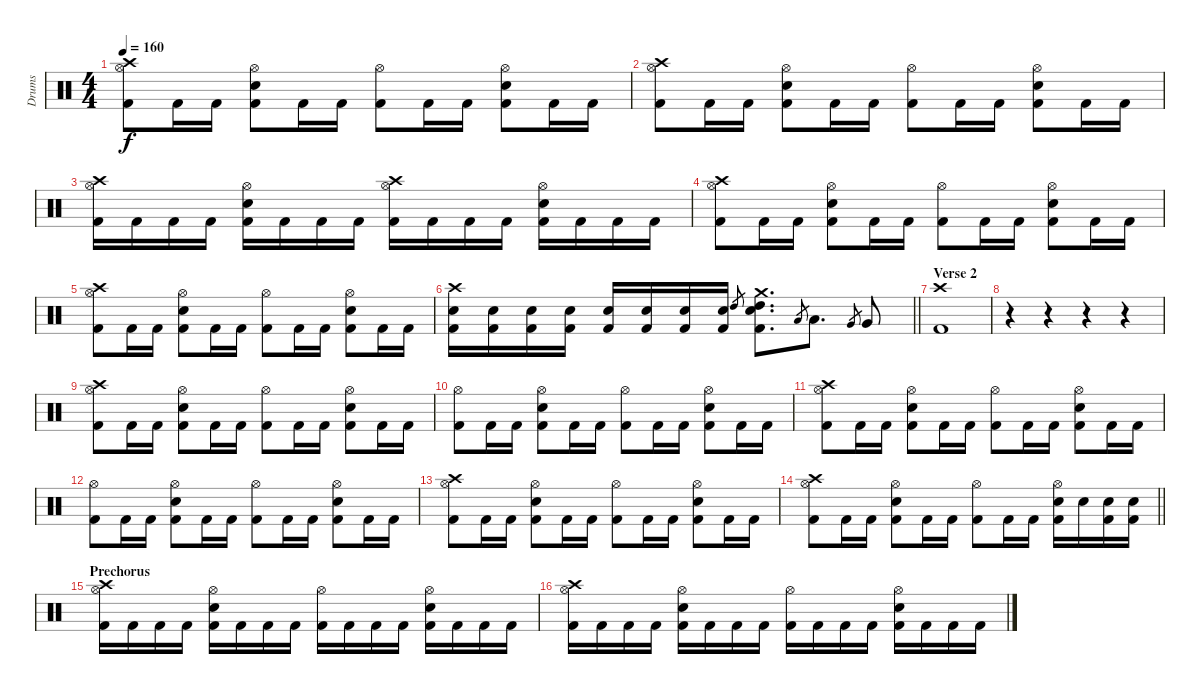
\track ("Drums" "Drums") {instrument percussion}
\staff {score}
\articulation defaults
\ts (4 4)
\tempo 160
\clef neutral
\ks c
("Crash high (hit)" "Hi-Hat (open)" "Kick (hit) 2").8{dy f} "Kick (hit) 2".16 "Kick (hit) 2".16 ("Hi-Hat (open)" "Snare (hit) 2" "Kick (hit) 2").8 "Kick (hit) 2".16 "Kick (hit) 2".16 ("Hi-Hat (open)" "Kick (hit) 2").8 "Kick (hit) 2".16 "Kick (hit) 2".16 ("Hi-Hat (open)" "Snare (hit) 2" "Kick (hit) 2").8 "Kick (hit) 2".16 "Kick (hit) 2".16 |
("Crash high (hit)" "Hi-Hat (open)" "Kick (hit) 2").8 "Kick (hit) 2".16 "Kick (hit) 2".16 ("Hi-Hat (open)" "Snare (hit) 2" "Kick (hit) 2").8 "Kick (hit) 2".16 "Kick (hit) 2".16 ("Hi-Hat (open)" "Kick (hit) 2").8 "Kick (hit) 2".16 "Kick (hit) 2".16 ("Hi-Hat (open)" "Snare (hit) 2" "Kick (hit) 2").8 "Kick (hit) 2".16 "Kick (hit) 2".16 |
("Crash high (hit)" "Hi-Hat (open)" "Kick (hit) 2").16 "Kick (hit) 2".16 "Kick (hit) 2".16 "Kick (hit) 2".16 ("Hi-Hat (open)" "Snare (hit) 2" "Kick (hit) 2").16 "Kick (hit) 2".16 "Kick (hit) 2".16 "Kick (hit) 2".16 ("Crash high (hit)" "Hi-Hat (open)" "Kick (hit) 2").16 "Kick (hit) 2".16 "Kick (hit) 2".16 "Kick (hit) 2".16 ("Hi-Hat (open)" "Snare (hit) 2" "Kick (hit) 2").16 "Kick (hit) 2".16 "Kick (hit) 2".16 "Kick (hit) 2".16 |
("Crash high (hit)" "Hi-Hat (open)" "Kick (hit) 2").8 "Kick (hit) 2".16 "Kick (hit) 2".16 ("Hi-Hat (open)" "Snare (hit) 2" "Kick (hit) 2").8 "Kick (hit) 2".16 "Kick (hit) 2".16 ("Hi-Hat (open)" "Kick (hit) 2").8 "Kick (hit) 2".16 "Kick (hit) 2".16 ("Hi-Hat (open)" "Snare (hit) 2" "Kick (hit) 2").8 "Kick (hit) 2".16 "Kick (hit) 2".16 |
("Crash high (hit)" "Hi-Hat (open)" "Kick (hit) 2").8 "Kick (hit) 2".16 "Kick (hit) 2".16 ("Hi-Hat (open)" "Snare (hit) 2" "Kick (hit) 2").8 "Kick (hit) 2".16 "Kick (hit) 2".16 ("Hi-Hat (open)" "Kick (hit) 2").8 "Kick (hit) 2".16 "Kick (hit) 2".16 ("Hi-Hat (open)" "Snare (hit) 2" "Kick (hit) 2").8 "Kick (hit) 2".16 "Kick (hit) 2".16 |
\barLineRight lightlight
("Crash high (hit)" "Snare (hit) 2" "Kick (hit) 2").16 ("Snare (hit) 2" "Kick (hit) 2").16 ("Snare (hit) 2" "Kick (hit) 2").16 ("Snare (hit) 2" "Kick (hit) 2").16 ("Snare (hit) 2" "Kick (hit) 2").16 ("Snare (hit) 2" "Kick (hit) 2").16 ("Snare (hit) 2" "Kick (hit) 2").16 ("Snare (hit) 2" "Kick (hit) 2").16 "High Tom (hit)".8{gr} ("Crash medium (hit)" "High Tom (hit)" "Snare (hit) 2" "Kick (hit) 2").8{d} "Low Tom (hit)".8{gr} "Low Tom (hit)".8{d} "Very Low Tom (hit)".8{gr} "Very Low Tom (hit)".8 |
\section ("" "Verse 2")
("Crash high (hit)" "Kick (hit) 2").1 |
r.4 r.4 r.4 r.4 |
("Crash high (hit)" "Hi-Hat (open)" "Kick (hit) 2").8 "Kick (hit) 2".16 "Kick (hit) 2".16 ("Hi-Hat (open)" "Snare (hit) 2" "Kick (hit) 2").8 "Kick (hit) 2".16 "Kick (hit) 2".16 ("Hi-Hat (open)" "Kick (hit) 2").8 "Kick (hit) 2".16 "Kick (hit) 2".16 ("Hi-Hat (open)" "Snare (hit) 2" "Kick (hit) 2").8 "Kick (hit) 2".16 "Kick (hit) 2".16 |
("Hi-Hat (open)" "Kick (hit) 2").8 "Kick (hit) 2".16 "Kick (hit) 2".16 ("Hi-Hat (open)" "Snare (hit) 2" "Kick (hit) 2").8 "Kick (hit) 2".16 "Kick (hit) 2".16 ("Hi-Hat (open)" "Kick (hit) 2").8 "Kick (hit) 2".16 "Kick (hit) 2".16 ("Hi-Hat (open)" "Snare (hit) 2" "Kick (hit) 2").8 "Kick (hit) 2".16 "Kick (hit) 2".16 |
("Crash high (hit)" "Hi-Hat (open)" "Kick (hit) 2").8 "Kick (hit) 2".16 "Kick (hit) 2".16 ("Hi-Hat (open)" "Snare (hit) 2" "Kick (hit) 2").8 "Kick (hit) 2".16 "Kick (hit) 2".16 ("Hi-Hat (open)" "Kick (hit) 2").8 "Kick (hit) 2".16 "Kick (hit) 2".16 ("Hi-Hat (open)" "Snare (hit) 2" "Kick (hit) 2").8 "Kick (hit) 2".16 "Kick (hit) 2".16 |
("Hi-Hat (open)" "Kick (hit) 2").8 "Kick (hit) 2".16 "Kick (hit) 2".16 ("Hi-Hat (open)" "Snare (hit) 2" "Kick (hit) 2").8 "Kick (hit) 2".16 "Kick (hit) 2".16 ("Hi-Hat (open)" "Kick (hit) 2").8 "Kick (hit) 2".16 "Kick (hit) 2".16 ("Hi-Hat (open)" "Snare (hit) 2" "Kick (hit) 2").8 "Kick (hit) 2".16 "Kick (hit) 2".16 |
("Crash high (hit)" "Hi-Hat (open)" "Kick (hit) 2").8 "Kick (hit) 2".16 "Kick (hit) 2".16 ("Hi-Hat (open)" "Snare (hit) 2" "Kick (hit) 2").8 "Kick (hit) 2".16 "Kick (hit) 2".16 ("Hi-Hat (open)" "Kick (hit) 2").8 "Kick (hit) 2".16 "Kick (hit) 2".16 ("Hi-Hat (open)" "Snare (hit) 2" "Kick (hit) 2").8 "Kick (hit) 2".16 "Kick (hit) 2".16 |
\barLineRight lightlight
("Crash high (hit)" "Hi-Hat (open)" "Kick (hit) 2").8 "Kick (hit) 2".16 "Kick (hit) 2".16 ("Hi-Hat (open)" "Snare (hit) 2" "Kick (hit) 2").8 "Kick (hit) 2".16 "Kick (hit) 2".16 ("Hi-Hat (open)" "Kick (hit) 2").8 "Kick (hit) 2".16 "Kick (hit) 2".16 ("Hi-Hat (open)" "Snare (hit) 2" "Kick (hit) 2").16 "Snare (hit) 2".16 ("Snare (hit) 2" "Kick (hit) 2").16 ("Snare (hit) 2" "Kick (hit) 2").16 |
\section ("" "Prechorus")
("Crash high (hit)" "Hi-Hat (open)" "Kick (hit) 2").16 "Kick (hit) 2".16 "Kick (hit) 2".16 "Kick (hit) 2".16 ("Hi-Hat (open)" "Snare (hit) 2" "Kick (hit) 2").16 "Kick (hit) 2".16 "Kick (hit) 2".16 "Kick (hit) 2".16 ("Hi-Hat (open)" "Kick (hit) 2").16 "Kick (hit) 2".16 "Kick (hit) 2".16 "Kick (hit) 2".16 ("Hi-Hat (open)" "Snare (hit) 2" "Kick (hit) 2").16 "Kick (hit) 2".16 "Kick (hit) 2".16 "Kick (hit) 2".16 |
("Crash high (hit)" "Hi-Hat (open)" "Kick (hit) 2").16 "Kick (hit) 2".16 "Kick (hit) 2".16 "Kick (hit) 2".16 ("Hi-Hat (open)" "Snare (hit) 2" "Kick (hit) 2").16 "Kick (hit) 2".16 "Kick (hit) 2".16 "Kick (hit) 2".16 ("Hi-Hat (open)" "Kick (hit) 2").16 "Kick (hit) 2".16 "Kick (hit) 2".16 "Kick (hit) 2".16 ("Hi-Hat (open)" "Snare (hit) 2" "Kick (hit) 2").16 "Kick (hit) 2".16 "Kick (hit) 2".16 "Kick (hit) 2".16
